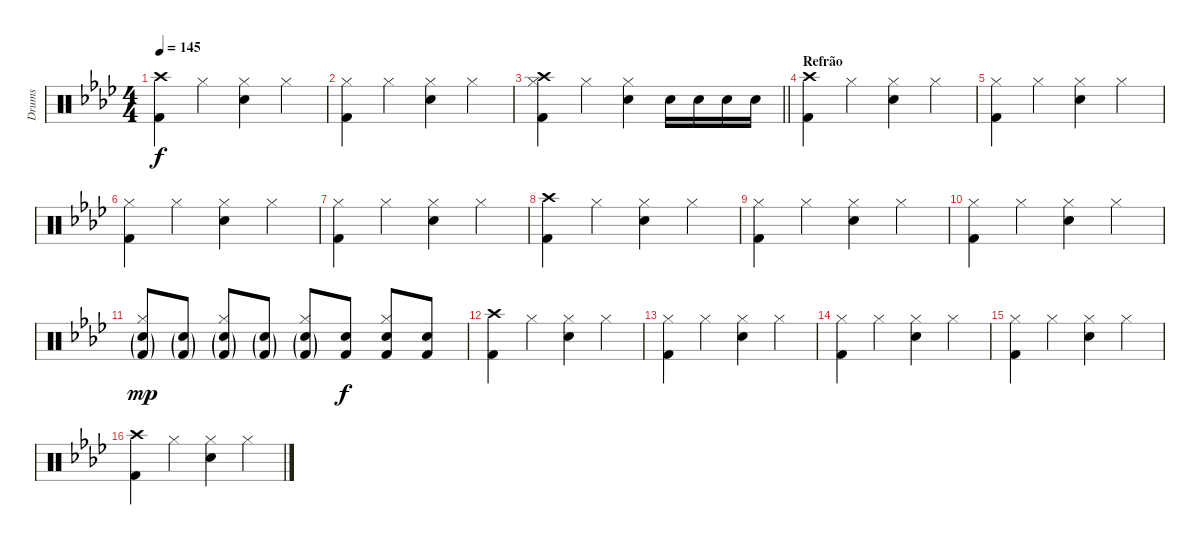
\track ("Drums" "Drums") {instrument percussion}
\staff {score}
\articulation defaults
\ts (4 4)
\tempo 145
\clef neutral
\ks ab
("Crash high (hit)" "Kick (hit) 2").4{dy f} "Hi-Hat (closed)".4 ("Hi-Hat (closed)" "Electric Snare (hit)").4 "Hi-Hat (closed)".4 |
("Hi-Hat (closed)" "Kick (hit) 2").4 "Hi-Hat (closed)".4 ("Hi-Hat (closed)" "Electric Snare (hit)").4 "Hi-Hat (closed)".4 |
\barLineRight lightlight
("Crash high (hit)" "Hi-Hat (closed)" "Kick (hit) 2").4 "Hi-Hat (closed)".4 ("Hi-Hat (closed)" "Electric Snare (hit)").4 "Electric Snare (hit)".16 "Electric Snare (hit)".16 "Electric Snare (hit)".16 "Electric Snare (hit)".16 |
\section ("" "Refrão")
("Crash high (hit)" "Kick (hit) 2").4 "Hi-Hat (closed)".4 ("Hi-Hat (closed)" "Electric Snare (hit)").4 "Hi-Hat (closed)".4 |
("Hi-Hat (closed)" "Kick (hit) 2").4 "Hi-Hat (closed)".4 ("Hi-Hat (closed)" "Electric Snare (hit)").4 "Hi-Hat (closed)".4 |
("Hi-Hat (closed)" "Kick (hit) 2").4 "Hi-Hat (closed)".4 ("Hi-Hat (closed)" "Electric Snare (hit)").4 "Hi-Hat (closed)".4 |
("Hi-Hat (closed)" "Kick (hit) 2").4 "Hi-Hat (closed)".4 ("Hi-Hat (closed)" "Electric Snare (hit)").4 "Hi-Hat (closed)".4 |
("Crash high (hit)" "Kick (hit) 2").4 "Hi-Hat (closed)".4 ("Hi-Hat (closed)" "Electric Snare (hit)").4 "Hi-Hat (closed)".4 |
("Hi-Hat (closed)" "Kick (hit) 2").4 "Hi-Hat (closed)".4 ("Hi-Hat (closed)" "Electric Snare (hit)").4 "Hi-Hat (closed)".4 |
("Hi-Hat (closed)" "Kick (hit) 2").4 "Hi-Hat (closed)".4 ("Hi-Hat (closed)" "Electric Snare (hit)").4 "Hi-Hat (closed)".4 |
("Hi-Hat (closed)" "Electric Snare (hit)"{g} "Kick (hit) 2"{g}).8{dy mp} ("Electric Snare (hit)"{g} "Kick (hit) 2"{g}).8 ("Hi-Hat (closed)" "Electric Snare (hit)"{g} "Kick (hit) 2"{g}).8 ("Electric Snare (hit)"{g} "Kick (hit) 2"{g}).8 ("Hi-Hat (closed)" "Electric Snare (hit)"{g} "Kick (hit) 2"{g}).8 ("Electric Snare (hit)" "Kick (hit) 2").8{dy f} ("Hi-Hat (closed)" "Electric Snare (hit)" "Kick (hit) 2").8 ("Electric Snare (hit)" "Kick (hit) 2").8 |
("Crash high (hit)" "Kick (hit) 2").4 "Hi-Hat (closed)".4 ("Hi-Hat (closed)" "Electric Snare (hit)").4 "Hi-Hat (closed)".4 |
("Hi-Hat (closed)" "Kick (hit) 2").4 "Hi-Hat (closed)".4 ("Hi-Hat (closed)" "Electric Snare (hit)").4 "Hi-Hat (closed)".4 |
("Hi-Hat (closed)" "Kick (hit) 2").4 "Hi-Hat (closed)".4 ("Hi-Hat (closed)" "Electric Snare (hit)").4 "Hi-Hat (closed)".4 |
("Hi-Hat (closed)" "Kick (hit) 2").4 "Hi-Hat (closed)".4 ("Hi-Hat (closed)" "Electric Snare (hit)").4 "Hi-Hat (closed)".4 |
("Crash high (hit)" "Kick (hit) 2").4 "Hi-Hat (closed)".4 ("Hi-Hat (closed)" "Electric Snare (hit)").4 "Hi-Hat (closed)".4
